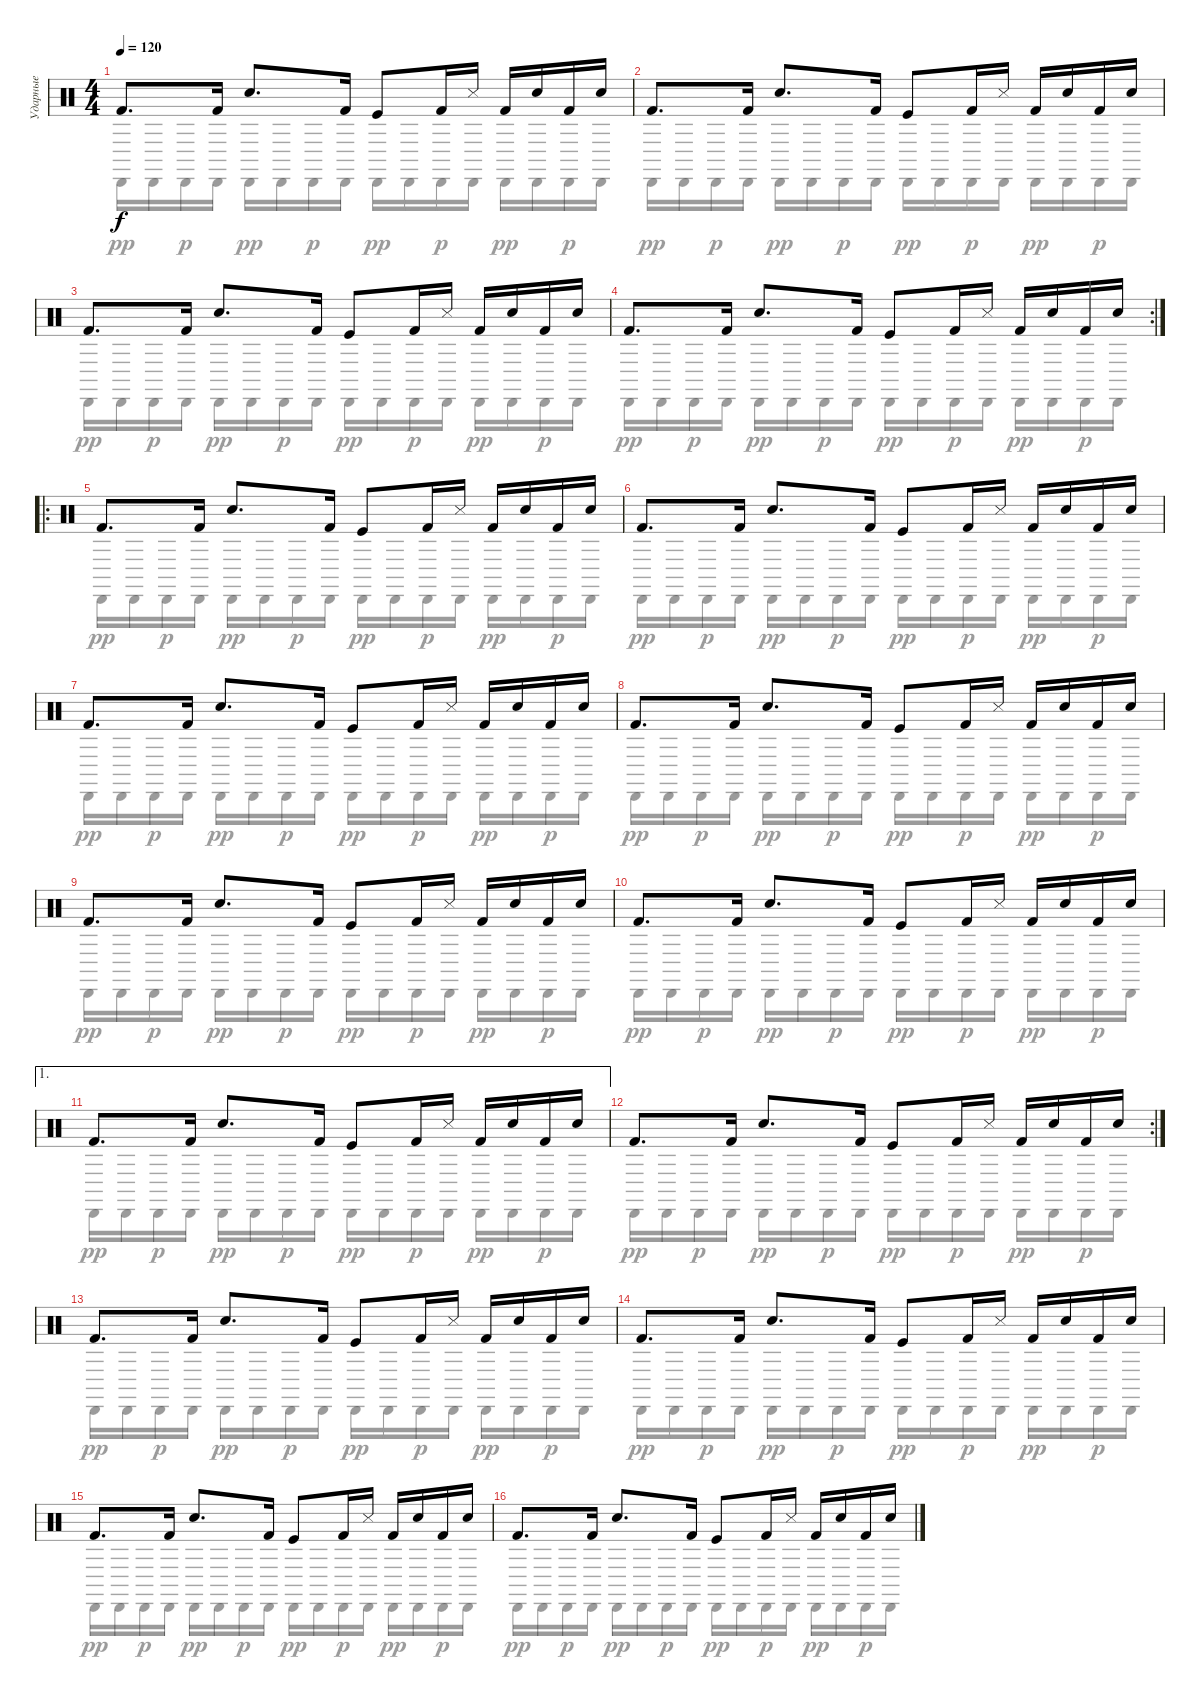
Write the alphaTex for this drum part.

\track ("Ударные" "Ударные") {instrument percussion}
\staff {score}
\articulation defaults
\voice
\ts (4 4)
\tempo 120
\clef neutral
\ks c "Kick (hit) 2".8{d dy f} "Kick (hit) 2".16 "Electric Snare (hit)".8{d} "Kick (hit) 2".16 "Kick (hit)".8 "Kick (hit) 2".16 "Metronome (hit)".16 "Kick (hit) 2".16 "Electric Snare (hit)".16 "Kick (hit) 2".16 "Electric Snare (hit)".16
|
"Kick (hit) 2".8{d} "Kick (hit) 2".16 "Electric Snare (hit)".8{d} "Kick (hit) 2".16 "Kick (hit)".8 "Kick (hit) 2".16 "Metronome (hit)".16 "Kick (hit) 2".16 "Electric Snare (hit)".16 "Kick (hit) 2".16 "Electric Snare (hit)".16 |
"Kick (hit) 2".8{d} "Kick (hit) 2".16 "Electric Snare (hit)".8{d} "Kick (hit) 2".16 "Kick (hit)".8 "Kick (hit) 2".16 "Metronome (hit)".16 "Kick (hit) 2".16 "Electric Snare (hit)".16 "Kick (hit) 2".16 "Electric Snare (hit)".16 |
\rc 2 "Kick (hit) 2".8{d} "Kick (hit) 2".16 "Electric Snare (hit)".8{d} "Kick (hit) 2".16 "Kick (hit)".8 "Kick (hit) 2".16 "Metronome (hit)".16 "Kick (hit) 2".16 "Electric Snare (hit)".16 "Kick (hit) 2".16 "Electric Snare (hit)".16
|
\ro "Kick (hit) 2".8{d} "Kick (hit) 2".16 "Electric Snare (hit)".8{d} "Kick (hit) 2".16 "Kick (hit)".8 "Kick (hit) 2".16 "Metronome (hit)".16 "Kick (hit) 2".16 "Electric Snare (hit)".16 "Kick (hit) 2".16 "Electric Snare (hit)".16
|
"Kick (hit) 2".8{d} "Kick (hit) 2".16 "Electric Snare (hit)".8{d} "Kick (hit) 2".16 "Kick (hit)".8 "Kick (hit) 2".16 "Metronome (hit)".16 "Kick (hit) 2".16 "Electric Snare (hit)".16 "Kick (hit) 2".16 "Electric Snare (hit)".16 |
"Kick (hit) 2".8{d} "Kick (hit) 2".16 "Electric Snare (hit)".8{d} "Kick (hit) 2".16 "Kick (hit)".8 "Kick (hit) 2".16 "Metronome (hit)".16 "Kick (hit) 2".16 "Electric Snare (hit)".16 "Kick (hit) 2".16 "Electric Snare (hit)".16 |
"Kick (hit) 2".8{d} "Kick (hit) 2".16 "Electric Snare (hit)".8{d} "Kick (hit) 2".16 "Kick (hit)".8 "Kick (hit) 2".16 "Metronome (hit)".16 "Kick (hit) 2".16 "Electric Snare (hit)".16 "Kick (hit) 2".16 "Electric Snare (hit)".16 |
"Kick (hit) 2".8{d} "Kick (hit) 2".16 "Electric Snare (hit)".8{d} "Kick (hit) 2".16 "Kick (hit)".8 "Kick (hit) 2".16 "Metronome (hit)".16 "Kick (hit) 2".16 "Electric Snare (hit)".16 "Kick (hit) 2".16 "Electric Snare (hit)".16 |
"Kick (hit) 2".8{d} "Kick (hit) 2".16 "Electric Snare (hit)".8{d} "Kick (hit) 2".16 "Kick (hit)".8 "Kick (hit) 2".16 "Metronome (hit)".16 "Kick (hit) 2".16 "Electric Snare (hit)".16 "Kick (hit) 2".16 "Electric Snare (hit)".16 |
\ae 1 "Kick (hit) 2".8{d} "Kick (hit) 2".16 "Electric Snare (hit)".8{d} "Kick (hit) 2".16 "Kick (hit)".8 "Kick (hit) 2".16 "Metronome (hit)".16 "Kick (hit) 2".16 "Electric Snare (hit)".16 "Kick (hit) 2".16 "Electric Snare (hit)".16
|
\rc 2 "Kick (hit) 2".8{d} "Kick (hit) 2".16 "Electric Snare (hit)".8{d} "Kick (hit) 2".16 "Kick (hit)".8 "Kick (hit) 2".16 "Metronome (hit)".16 "Kick (hit) 2".16 "Electric Snare (hit)".16 "Kick (hit) 2".16 "Electric Snare (hit)".16
|
"Kick (hit) 2".8{d} "Kick (hit) 2".16 "Electric Snare (hit)".8{d} "Kick (hit) 2".16 "Kick (hit)".8 "Kick (hit) 2".16 "Metronome (hit)".16 "Kick (hit) 2".16 "Electric Snare (hit)".16 "Kick (hit) 2".16 "Electric Snare (hit)".16 |
"Kick (hit) 2".8{d} "Kick (hit) 2".16 "Electric Snare (hit)".8{d} "Kick (hit) 2".16 "Kick (hit)".8 "Kick (hit) 2".16 "Metronome (hit)".16 "Kick (hit) 2".16 "Electric Snare (hit)".16 "Kick (hit) 2".16 "Electric Snare (hit)".16 |
"Kick (hit) 2".8{d} "Kick (hit) 2".16 "Electric Snare (hit)".8{d} "Kick (hit) 2".16 "Kick (hit)".8 "Kick (hit) 2".16 "Metronome (hit)".16 "Kick (hit) 2".16 "Electric Snare (hit)".16 "Kick (hit) 2".16 "Electric Snare (hit)".16 |
"Kick (hit) 2".8{d} "Kick (hit) 2".16 "Electric Snare (hit)".8{d} "Kick (hit) 2".16 "Kick (hit)".8 "Kick (hit) 2".16 "Metronome (hit)".16 "Kick (hit) 2".16 "Electric Snare (hit)".16 "Kick (hit) 2".16 "Electric Snare (hit)".16
\voice
\clef neutral
\ottava regular
\simile none
\ks c "Cabasa (hit)".16{dy pp} "Cabasa (hit)".16 "Cabasa (hit)".16{dy p} "Cabasa (hit)".16 "Cabasa (hit)".16{dy pp} "Cabasa (hit)".16 "Cabasa (hit)".16{dy p} "Cabasa (hit)".16 "Cabasa (hit)".16{dy pp} "Cabasa (hit)".16 "Cabasa (hit)".16{dy p} "Cabasa (hit)".16 "Cabasa (hit)".16{dy pp} "Cabasa (hit)".16 "Cabasa (hit)".16{dy p} "Cabasa (hit)".16
|
"Cabasa (hit)".16{dy pp} "Cabasa (hit)".16 "Cabasa (hit)".16{dy p} "Cabasa (hit)".16 "Cabasa (hit)".16{dy pp} "Cabasa (hit)".16 "Cabasa (hit)".16{dy p} "Cabasa (hit)".16 "Cabasa (hit)".16{dy pp} "Cabasa (hit)".16 "Cabasa (hit)".16{dy p} "Cabasa (hit)".16 "Cabasa (hit)".16{dy pp} "Cabasa (hit)".16 "Cabasa (hit)".16{dy p} "Cabasa (hit)".16 |
"Cabasa (hit)".16{dy pp} "Cabasa (hit)".16 "Cabasa (hit)".16{dy p} "Cabasa (hit)".16 "Cabasa (hit)".16{dy pp} "Cabasa (hit)".16 "Cabasa (hit)".16{dy p} "Cabasa (hit)".16 "Cabasa (hit)".16{dy pp} "Cabasa (hit)".16 "Cabasa (hit)".16{dy p} "Cabasa (hit)".16 "Cabasa (hit)".16{dy pp} "Cabasa (hit)".16 "Cabasa (hit)".16{dy p} "Cabasa (hit)".16 |
"Cabasa (hit)".16{dy pp} "Cabasa (hit)".16 "Cabasa (hit)".16{dy p} "Cabasa (hit)".16 "Cabasa (hit)".16{dy pp} "Cabasa (hit)".16 "Cabasa (hit)".16{dy p} "Cabasa (hit)".16 "Cabasa (hit)".16{dy pp} "Cabasa (hit)".16 "Cabasa (hit)".16{dy p} "Cabasa (hit)".16 "Cabasa (hit)".16{dy pp} "Cabasa (hit)".16 "Cabasa (hit)".16{dy p} "Cabasa (hit)".16 |
"Cabasa (hit)".16{dy pp} "Cabasa (hit)".16 "Cabasa (hit)".16{dy p} "Cabasa (hit)".16 "Cabasa (hit)".16{dy pp} "Cabasa (hit)".16 "Cabasa (hit)".16{dy p} "Cabasa (hit)".16 "Cabasa (hit)".16{dy pp} "Cabasa (hit)".16 "Cabasa (hit)".16{dy p} "Cabasa (hit)".16 "Cabasa (hit)".16{dy pp} "Cabasa (hit)".16 "Cabasa (hit)".16{dy p} "Cabasa (hit)".16 |
"Cabasa (hit)".16{dy pp} "Cabasa (hit)".16 "Cabasa (hit)".16{dy p} "Cabasa (hit)".16 "Cabasa (hit)".16{dy pp} "Cabasa (hit)".16 "Cabasa (hit)".16{dy p} "Cabasa (hit)".16 "Cabasa (hit)".16{dy pp} "Cabasa (hit)".16 "Cabasa (hit)".16{dy p} "Cabasa (hit)".16 "Cabasa (hit)".16{dy pp} "Cabasa (hit)".16 "Cabasa (hit)".16{dy p} "Cabasa (hit)".16 |
"Cabasa (hit)".16{dy pp} "Cabasa (hit)".16 "Cabasa (hit)".16{dy p} "Cabasa (hit)".16 "Cabasa (hit)".16{dy pp} "Cabasa (hit)".16 "Cabasa (hit)".16{dy p} "Cabasa (hit)".16 "Cabasa (hit)".16{dy pp} "Cabasa (hit)".16 "Cabasa (hit)".16{dy p} "Cabasa (hit)".16 "Cabasa (hit)".16{dy pp} "Cabasa (hit)".16 "Cabasa (hit)".16{dy p} "Cabasa (hit)".16 |
"Cabasa (hit)".16{dy pp} "Cabasa (hit)".16 "Cabasa (hit)".16{dy p} "Cabasa (hit)".16 "Cabasa (hit)".16{dy pp} "Cabasa (hit)".16 "Cabasa (hit)".16{dy p} "Cabasa (hit)".16 "Cabasa (hit)".16{dy pp} "Cabasa (hit)".16 "Cabasa (hit)".16{dy p} "Cabasa (hit)".16 "Cabasa (hit)".16{dy pp} "Cabasa (hit)".16 "Cabasa (hit)".16{dy p} "Cabasa (hit)".16 |
"Cabasa (hit)".16{dy pp} "Cabasa (hit)".16 "Cabasa (hit)".16{dy p} "Cabasa (hit)".16 "Cabasa (hit)".16{dy pp} "Cabasa (hit)".16 "Cabasa (hit)".16{dy p} "Cabasa (hit)".16 "Cabasa (hit)".16{dy pp} "Cabasa (hit)".16 "Cabasa (hit)".16{dy p} "Cabasa (hit)".16 "Cabasa (hit)".16{dy pp} "Cabasa (hit)".16 "Cabasa (hit)".16{dy p} "Cabasa (hit)".16 |
"Cabasa (hit)".16{dy pp} "Cabasa (hit)".16 "Cabasa (hit)".16{dy p} "Cabasa (hit)".16 "Cabasa (hit)".16{dy pp} "Cabasa (hit)".16 "Cabasa (hit)".16{dy p} "Cabasa (hit)".16 "Cabasa (hit)".16{dy pp} "Cabasa (hit)".16 "Cabasa (hit)".16{dy p} "Cabasa (hit)".16 "Cabasa (hit)".16{dy pp} "Cabasa (hit)".16 "Cabasa (hit)".16{dy p} "Cabasa (hit)".16 |
"Cabasa (hit)".16{dy pp} "Cabasa (hit)".16 "Cabasa (hit)".16{dy p} "Cabasa (hit)".16 "Cabasa (hit)".16{dy pp} "Cabasa (hit)".16 "Cabasa (hit)".16{dy p} "Cabasa (hit)".16 "Cabasa (hit)".16{dy pp} "Cabasa (hit)".16 "Cabasa (hit)".16{dy p} "Cabasa (hit)".16 "Cabasa (hit)".16{dy pp} "Cabasa (hit)".16 "Cabasa (hit)".16{dy p} "Cabasa (hit)".16 |
"Cabasa (hit)".16{dy pp} "Cabasa (hit)".16 "Cabasa (hit)".16{dy p} "Cabasa (hit)".16 "Cabasa (hit)".16{dy pp} "Cabasa (hit)".16 "Cabasa (hit)".16{dy p} "Cabasa (hit)".16 "Cabasa (hit)".16{dy pp} "Cabasa (hit)".16 "Cabasa (hit)".16{dy p} "Cabasa (hit)".16 "Cabasa (hit)".16{dy pp} "Cabasa (hit)".16 "Cabasa (hit)".16{dy p} "Cabasa (hit)".16 |
"Cabasa (hit)".16{dy pp} "Cabasa (hit)".16 "Cabasa (hit)".16{dy p} "Cabasa (hit)".16 "Cabasa (hit)".16{dy pp} "Cabasa (hit)".16 "Cabasa (hit)".16{dy p} "Cabasa (hit)".16 "Cabasa (hit)".16{dy pp} "Cabasa (hit)".16 "Cabasa (hit)".16{dy p} "Cabasa (hit)".16 "Cabasa (hit)".16{dy pp} "Cabasa (hit)".16 "Cabasa (hit)".16{dy p} "Cabasa (hit)".16 |
"Cabasa (hit)".16{dy pp} "Cabasa (hit)".16 "Cabasa (hit)".16{dy p} "Cabasa (hit)".16 "Cabasa (hit)".16{dy pp} "Cabasa (hit)".16 "Cabasa (hit)".16{dy p} "Cabasa (hit)".16 "Cabasa (hit)".16{dy pp} "Cabasa (hit)".16 "Cabasa (hit)".16{dy p} "Cabasa (hit)".16 "Cabasa (hit)".16{dy pp} "Cabasa (hit)".16 "Cabasa (hit)".16{dy p} "Cabasa (hit)".16 |
"Cabasa (hit)".16{dy pp} "Cabasa (hit)".16 "Cabasa (hit)".16{dy p} "Cabasa (hit)".16 "Cabasa (hit)".16{dy pp} "Cabasa (hit)".16 "Cabasa (hit)".16{dy p} "Cabasa (hit)".16 "Cabasa (hit)".16{dy pp} "Cabasa (hit)".16 "Cabasa (hit)".16{dy p} "Cabasa (hit)".16 "Cabasa (hit)".16{dy pp} "Cabasa (hit)".16 "Cabasa (hit)".16{dy p} "Cabasa (hit)".16 |
"Cabasa (hit)".16{dy pp} "Cabasa (hit)".16 "Cabasa (hit)".16{dy p} "Cabasa (hit)".16 "Cabasa (hit)".16{dy pp} "Cabasa (hit)".16 "Cabasa (hit)".16{dy p} "Cabasa (hit)".16 "Cabasa (hit)".16{dy pp} "Cabasa (hit)".16 "Cabasa (hit)".16{dy p} "Cabasa (hit)".16 "Cabasa (hit)".16{dy pp} "Cabasa (hit)".16 "Cabasa (hit)".16{dy p} "Cabasa (hit)".16
